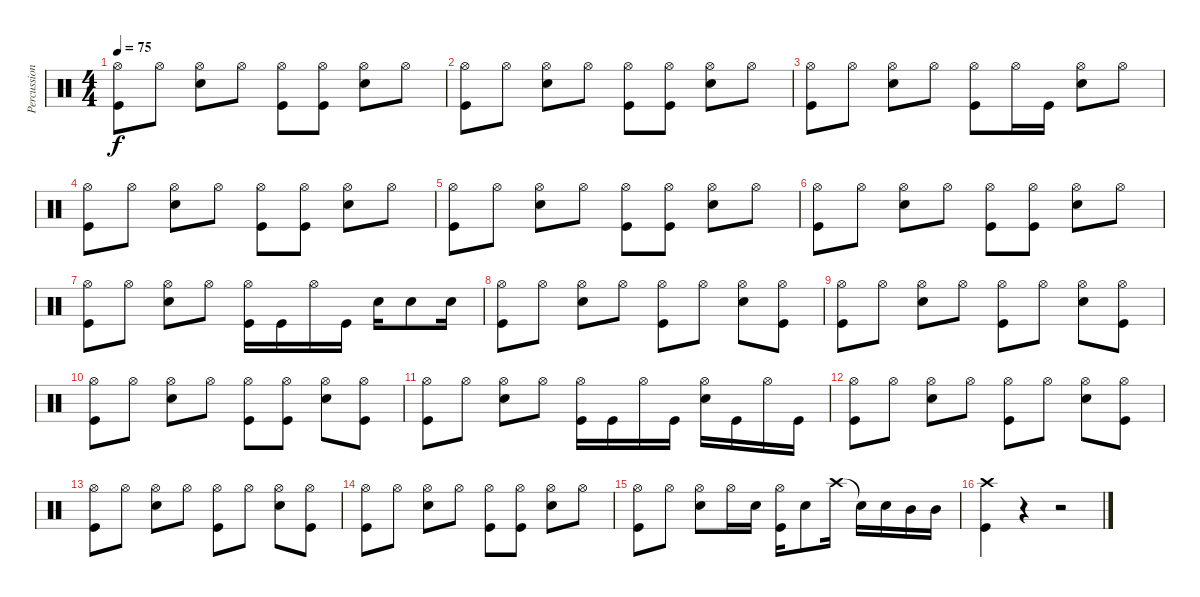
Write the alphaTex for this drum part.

\track ("Percussion" "Percussion") {instrument percussion}
\staff {score}
\articulation defaults
\ts (4 4)
\tempo 75
\clef neutral
\ks c
("Hi-Hat (open)" "Kick (hit)").8{dy f} "Hi-Hat (open)".8 ("Hi-Hat (open)" "Snare (hit) 2").8 "Hi-Hat (open)".8 ("Hi-Hat (open)" "Kick (hit)").8 ("Hi-Hat (open)" "Kick (hit)").8 ("Hi-Hat (open)" "Snare (hit) 2").8 "Hi-Hat (open)".8 |
("Hi-Hat (open)" "Kick (hit)").8 "Hi-Hat (open)".8 ("Hi-Hat (open)" "Snare (hit) 2").8 "Hi-Hat (open)".8 ("Hi-Hat (open)" "Kick (hit)").8 ("Hi-Hat (open)" "Kick (hit)").8 ("Hi-Hat (open)" "Snare (hit) 2").8 "Hi-Hat (open)".8 |
("Hi-Hat (open)" "Kick (hit)").8 "Hi-Hat (open)".8 ("Hi-Hat (open)" "Snare (hit) 2").8 "Hi-Hat (open)".8 ("Hi-Hat (open)" "Kick (hit)").8 "Hi-Hat (open)".16 "Kick (hit)".16 ("Hi-Hat (open)" "Snare (hit) 2").8 "Hi-Hat (open)".8 |
("Hi-Hat (open)" "Kick (hit)").8 "Hi-Hat (open)".8 ("Hi-Hat (open)" "Snare (hit) 2").8 "Hi-Hat (open)".8 ("Hi-Hat (open)" "Kick (hit)").8 ("Hi-Hat (open)" "Kick (hit)").8 ("Hi-Hat (open)" "Snare (hit) 2").8 "Hi-Hat (open)".8 |
("Hi-Hat (open)" "Kick (hit)").8 "Hi-Hat (open)".8 ("Hi-Hat (open)" "Snare (hit) 2").8 "Hi-Hat (open)".8 ("Hi-Hat (open)" "Kick (hit)").8 ("Hi-Hat (open)" "Kick (hit)").8 ("Hi-Hat (open)" "Snare (hit) 2").8 "Hi-Hat (open)".8 |
("Hi-Hat (open)" "Kick (hit)").8 "Hi-Hat (open)".8 ("Hi-Hat (open)" "Snare (hit) 2").8 "Hi-Hat (open)".8 ("Hi-Hat (open)" "Kick (hit)").8 ("Hi-Hat (open)" "Kick (hit)").8 ("Hi-Hat (open)" "Snare (hit) 2").8 "Hi-Hat (open)".8 |
("Hi-Hat (open)" "Kick (hit)").8 "Hi-Hat (open)".8 ("Hi-Hat (open)" "Snare (hit) 2").8 "Hi-Hat (open)".8 ("Hi-Hat (open)" "Kick (hit)").16 "Kick (hit)".16 "Hi-Hat (open)".16 "Kick (hit)".16 "Snare (hit) 2".16 "Snare (hit) 2".8 "Snare (hit) 2".16 |
("Hi-Hat (open)" "Kick (hit)").8 "Hi-Hat (open)".8 ("Hi-Hat (open)" "Snare (hit) 2").8 "Hi-Hat (open)".8 ("Hi-Hat (open)" "Kick (hit)").8 "Hi-Hat (open)".8 ("Hi-Hat (open)" "Snare (hit) 2").8 ("Hi-Hat (open)" "Kick (hit)").8 |
("Hi-Hat (open)" "Kick (hit)").8 "Hi-Hat (open)".8 ("Hi-Hat (open)" "Snare (hit) 2").8 "Hi-Hat (open)".8 ("Hi-Hat (open)" "Kick (hit)").8 "Hi-Hat (open)".8 ("Hi-Hat (open)" "Snare (hit) 2").8 ("Hi-Hat (open)" "Kick (hit)").8 |
("Hi-Hat (open)" "Kick (hit)").8 "Hi-Hat (open)".8 ("Hi-Hat (open)" "Snare (hit) 2").8 "Hi-Hat (open)".8 ("Hi-Hat (open)" "Kick (hit)").8 ("Hi-Hat (open)" "Kick (hit)").8 ("Hi-Hat (open)" "Snare (hit) 2").8 ("Hi-Hat (open)" "Kick (hit)").8 |
("Hi-Hat (open)" "Kick (hit)").8 "Hi-Hat (open)".8 ("Hi-Hat (open)" "Snare (hit) 2").8 "Hi-Hat (open)".8 ("Hi-Hat (open)" "Kick (hit)").16 "Kick (hit)".16 "Hi-Hat (open)".16 "Kick (hit)".16 ("Hi-Hat (open)" "Snare (hit) 2").16 "Kick (hit)".16 "Hi-Hat (open)".16 "Kick (hit)".16 |
("Hi-Hat (open)" "Kick (hit)").8 "Hi-Hat (open)".8 ("Hi-Hat (open)" "Snare (hit) 2").8 "Hi-Hat (open)".8 ("Hi-Hat (open)" "Kick (hit)").8 "Hi-Hat (open)".8 ("Hi-Hat (open)" "Snare (hit) 2").8 ("Hi-Hat (open)" "Kick (hit)").8 |
("Hi-Hat (open)" "Kick (hit)").8 "Hi-Hat (open)".8 ("Hi-Hat (open)" "Snare (hit) 2").8 "Hi-Hat (open)".8 ("Hi-Hat (open)" "Kick (hit)").8 "Hi-Hat (open)".8 ("Hi-Hat (open)" "Snare (hit) 2").8 ("Hi-Hat (open)" "Kick (hit)").8 |
("Hi-Hat (open)" "Kick (hit)").8 "Hi-Hat (open)".8 ("Hi-Hat (open)" "Snare (hit) 2").8 "Hi-Hat (open)".8 ("Hi-Hat (open)" "Kick (hit)").8 ("Hi-Hat (open)" "Kick (hit)").8 ("Hi-Hat (open)" "Snare (hit) 2").8 "Hi-Hat (open)".8 |
("Hi-Hat (open)" "Kick (hit)").8 "Hi-Hat (open)".8 ("Hi-Hat (open)" "Snare (hit) 2").8 "Hi-Hat (open)".16 "Snare (hit) 2".16 ("Hi-Hat (open)" "Kick (hit)").16 "Snare (hit) 2".8 "Crash high (hit)".16 "Snare (hit)"{t}.16 "Snare (hit) 2".16 "Mid Tom (hit)".16 "Mid Tom (hit)".16 |
("Crash high (hit)" "Kick (hit)").4 r.4 r.2
